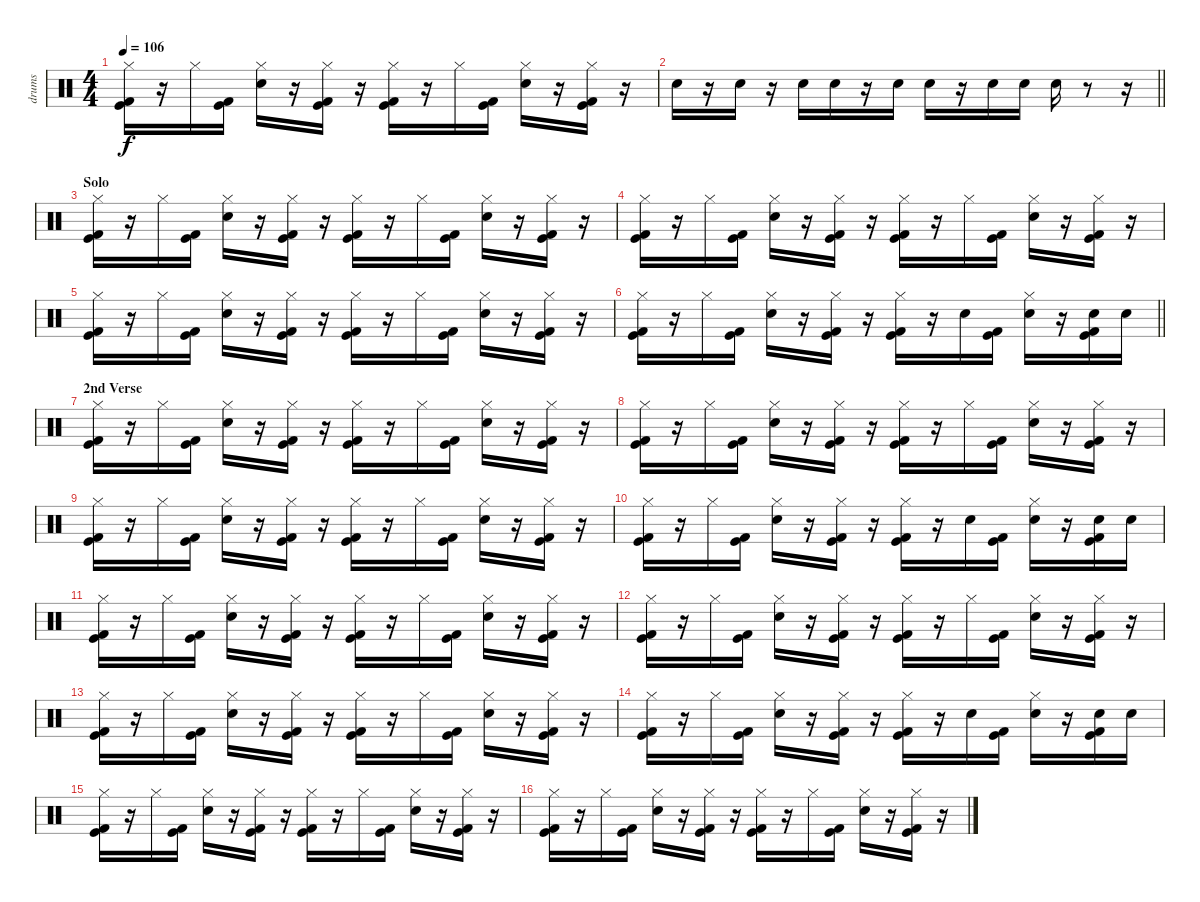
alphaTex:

\track ("drums" "drums") {instrument percussion}
\staff {score}
\articulation defaults
\ts (4 4)
\tempo 106
\clef neutral
\ks c
("Hi-Hat (closed)" "Kick (hit) 2" "Kick (hit)").16{dy f} r.16 "Hi-Hat (closed)".16 ("Kick (hit) 2" "Kick (hit)").16 ("Hi-Hat (closed)" "Electric Snare (hit)").16 r.16 ("Hi-Hat (closed)" "Kick (hit) 2" "Kick (hit)").16 r.16 ("Hi-Hat (closed)" "Kick (hit) 2" "Kick (hit)").16 r.16 "Hi-Hat (closed)".16 ("Kick (hit) 2" "Kick (hit)").16 ("Hi-Hat (closed)" "Electric Snare (hit)").16 r.16 ("Hi-Hat (closed)" "Kick (hit) 2" "Kick (hit)").16 r.16 |
\barLineRight lightlight "Electric Snare (hit)".16
r.16 "Electric Snare (hit)".16 r.16 "Electric Snare (hit)".16 "Electric Snare (hit)".16 r.16 "Electric Snare (hit)".16 "Electric Snare (hit)".16 r.16 "Electric Snare (hit)".16 "Electric Snare (hit)".16 "Electric Snare (hit)".16 r.8 r.16 |
\section ("" "Solo")
("Hi-Hat (closed)" "Kick (hit) 2" "Kick (hit)").16 r.16 "Hi-Hat (closed)".16 ("Kick (hit) 2" "Kick (hit)").16 ("Hi-Hat (closed)" "Electric Snare (hit)").16 r.16 ("Hi-Hat (closed)" "Kick (hit) 2" "Kick (hit)").16 r.16 ("Hi-Hat (closed)" "Kick (hit) 2" "Kick (hit)").16 r.16 "Hi-Hat (closed)".16 ("Kick (hit) 2" "Kick (hit)").16 ("Hi-Hat (closed)" "Electric Snare (hit)").16 r.16 ("Hi-Hat (closed)" "Kick (hit) 2" "Kick (hit)").16 r.16 |
("Hi-Hat (closed)" "Kick (hit) 2" "Kick (hit)").16 r.16 "Hi-Hat (closed)".16 ("Kick (hit) 2" "Kick (hit)").16 ("Hi-Hat (closed)" "Electric Snare (hit)").16 r.16 ("Hi-Hat (closed)" "Kick (hit) 2" "Kick (hit)").16 r.16 ("Hi-Hat (closed)" "Kick (hit) 2" "Kick (hit)").16 r.16 "Hi-Hat (closed)".16 ("Kick (hit) 2" "Kick (hit)").16 ("Hi-Hat (closed)" "Electric Snare (hit)").16 r.16 ("Hi-Hat (closed)" "Kick (hit) 2" "Kick (hit)").16 r.16 |
("Hi-Hat (closed)" "Kick (hit) 2" "Kick (hit)").16 r.16 "Hi-Hat (closed)".16 ("Kick (hit) 2" "Kick (hit)").16 ("Hi-Hat (closed)" "Electric Snare (hit)").16 r.16 ("Hi-Hat (closed)" "Kick (hit) 2" "Kick (hit)").16 r.16 ("Hi-Hat (closed)" "Kick (hit) 2" "Kick (hit)").16 r.16 "Hi-Hat (closed)".16 ("Kick (hit) 2" "Kick (hit)").16 ("Hi-Hat (closed)" "Electric Snare (hit)").16 r.16 ("Hi-Hat (closed)" "Kick (hit) 2" "Kick (hit)").16 r.16 |
\barLineRight lightlight
("Hi-Hat (closed)" "Kick (hit) 2" "Kick (hit)").16 r.16 "Hi-Hat (closed)".16 ("Kick (hit) 2" "Kick (hit)").16 ("Hi-Hat (closed)" "Electric Snare (hit)").16 r.16 ("Hi-Hat (closed)" "Kick (hit) 2" "Kick (hit)").16 r.16 ("Hi-Hat (closed)" "Kick (hit) 2" "Kick (hit)").16 r.16 "Electric Snare (hit)".16 ("Kick (hit) 2" "Kick (hit)").16 ("Hi-Hat (closed)" "Electric Snare (hit)").16 r.16 ("Electric Snare (hit)" "Kick (hit) 2" "Kick (hit)").16 "Electric Snare (hit)".16 |
\section ("" "2nd Verse")
("Hi-Hat (closed)" "Kick (hit) 2" "Kick (hit)").16 r.16 "Hi-Hat (closed)".16 ("Kick (hit) 2" "Kick (hit)").16 ("Hi-Hat (closed)" "Electric Snare (hit)").16 r.16 ("Hi-Hat (closed)" "Kick (hit) 2" "Kick (hit)").16 r.16 ("Hi-Hat (closed)" "Kick (hit) 2" "Kick (hit)").16 r.16 "Hi-Hat (closed)".16 ("Kick (hit) 2" "Kick (hit)").16 ("Hi-Hat (closed)" "Electric Snare (hit)").16 r.16 ("Hi-Hat (closed)" "Kick (hit) 2" "Kick (hit)").16 r.16 |
("Hi-Hat (closed)" "Kick (hit) 2" "Kick (hit)").16 r.16 "Hi-Hat (closed)".16 ("Kick (hit) 2" "Kick (hit)").16 ("Hi-Hat (closed)" "Electric Snare (hit)").16 r.16 ("Hi-Hat (closed)" "Kick (hit) 2" "Kick (hit)").16 r.16 ("Hi-Hat (closed)" "Kick (hit) 2" "Kick (hit)").16 r.16 "Hi-Hat (closed)".16 ("Kick (hit) 2" "Kick (hit)").16 ("Hi-Hat (closed)" "Electric Snare (hit)").16 r.16 ("Hi-Hat (closed)" "Kick (hit) 2" "Kick (hit)").16 r.16 |
("Hi-Hat (closed)" "Kick (hit) 2" "Kick (hit)").16 r.16 "Hi-Hat (closed)".16 ("Kick (hit) 2" "Kick (hit)").16 ("Hi-Hat (closed)" "Electric Snare (hit)").16 r.16 ("Hi-Hat (closed)" "Kick (hit) 2" "Kick (hit)").16 r.16 ("Hi-Hat (closed)" "Kick (hit) 2" "Kick (hit)").16 r.16 "Hi-Hat (closed)".16 ("Kick (hit) 2" "Kick (hit)").16 ("Hi-Hat (closed)" "Electric Snare (hit)").16 r.16 ("Hi-Hat (closed)" "Kick (hit) 2" "Kick (hit)").16 r.16 |
("Hi-Hat (closed)" "Kick (hit) 2" "Kick (hit)").16 r.16 "Hi-Hat (closed)".16 ("Kick (hit) 2" "Kick (hit)").16 ("Hi-Hat (closed)" "Electric Snare (hit)").16 r.16 ("Hi-Hat (closed)" "Kick (hit) 2" "Kick (hit)").16 r.16 ("Hi-Hat (closed)" "Kick (hit) 2" "Kick (hit)").16 r.16 "Electric Snare (hit)".16 ("Kick (hit) 2" "Kick (hit)").16 ("Hi-Hat (closed)" "Electric Snare (hit)").16 r.16 ("Electric Snare (hit)" "Kick (hit) 2" "Kick (hit)").16 "Electric Snare (hit)".16 |
("Hi-Hat (closed)" "Kick (hit) 2" "Kick (hit)").16 r.16 "Hi-Hat (closed)".16 ("Kick (hit) 2" "Kick (hit)").16 ("Hi-Hat (closed)" "Electric Snare (hit)").16 r.16 ("Hi-Hat (closed)" "Kick (hit) 2" "Kick (hit)").16 r.16 ("Hi-Hat (closed)" "Kick (hit) 2" "Kick (hit)").16 r.16 "Hi-Hat (closed)".16 ("Kick (hit) 2" "Kick (hit)").16 ("Hi-Hat (closed)" "Electric Snare (hit)").16 r.16 ("Hi-Hat (closed)" "Kick (hit) 2" "Kick (hit)").16 r.16 |
("Hi-Hat (closed)" "Kick (hit) 2" "Kick (hit)").16 r.16 "Hi-Hat (closed)".16 ("Kick (hit) 2" "Kick (hit)").16 ("Hi-Hat (closed)" "Electric Snare (hit)").16 r.16 ("Hi-Hat (closed)" "Kick (hit) 2" "Kick (hit)").16 r.16 ("Hi-Hat (closed)" "Kick (hit) 2" "Kick (hit)").16 r.16 "Hi-Hat (closed)".16 ("Kick (hit) 2" "Kick (hit)").16 ("Hi-Hat (closed)" "Electric Snare (hit)").16 r.16 ("Hi-Hat (closed)" "Kick (hit) 2" "Kick (hit)").16 r.16 |
("Hi-Hat (closed)" "Kick (hit) 2" "Kick (hit)").16 r.16 "Hi-Hat (closed)".16 ("Kick (hit) 2" "Kick (hit)").16 ("Hi-Hat (closed)" "Electric Snare (hit)").16 r.16 ("Hi-Hat (closed)" "Kick (hit) 2" "Kick (hit)").16 r.16 ("Hi-Hat (closed)" "Kick (hit) 2" "Kick (hit)").16 r.16 "Hi-Hat (closed)".16 ("Kick (hit) 2" "Kick (hit)").16 ("Hi-Hat (closed)" "Electric Snare (hit)").16 r.16 ("Hi-Hat (closed)" "Kick (hit) 2" "Kick (hit)").16 r.16 |
("Hi-Hat (closed)" "Kick (hit) 2" "Kick (hit)").16 r.16 "Hi-Hat (closed)".16 ("Kick (hit) 2" "Kick (hit)").16 ("Hi-Hat (closed)" "Electric Snare (hit)").16 r.16 ("Hi-Hat (closed)" "Kick (hit) 2" "Kick (hit)").16 r.16 ("Hi-Hat (closed)" "Kick (hit) 2" "Kick (hit)").16 r.16 "Electric Snare (hit)".16 ("Kick (hit) 2" "Kick (hit)").16 ("Hi-Hat (closed)" "Electric Snare (hit)").16 r.16 ("Electric Snare (hit)" "Kick (hit) 2" "Kick (hit)").16 "Electric Snare (hit)".16 |
("Hi-Hat (closed)" "Kick (hit) 2" "Kick (hit)").16 r.16 "Hi-Hat (closed)".16 ("Kick (hit) 2" "Kick (hit)").16 ("Hi-Hat (closed)" "Electric Snare (hit)").16 r.16 ("Hi-Hat (closed)" "Kick (hit) 2" "Kick (hit)").16 r.16 ("Hi-Hat (closed)" "Kick (hit) 2" "Kick (hit)").16 r.16 "Hi-Hat (closed)".16 ("Kick (hit) 2" "Kick (hit)").16 ("Hi-Hat (closed)" "Electric Snare (hit)").16 r.16 ("Hi-Hat (closed)" "Kick (hit) 2" "Kick (hit)").16 r.16 |
("Hi-Hat (closed)" "Kick (hit) 2" "Kick (hit)").16 r.16 "Hi-Hat (closed)".16 ("Kick (hit) 2" "Kick (hit)").16 ("Hi-Hat (closed)" "Electric Snare (hit)").16 r.16 ("Hi-Hat (closed)" "Kick (hit) 2" "Kick (hit)").16 r.16 ("Hi-Hat (closed)" "Kick (hit) 2" "Kick (hit)").16 r.16 "Hi-Hat (closed)".16 ("Kick (hit) 2" "Kick (hit)").16 ("Hi-Hat (closed)" "Electric Snare (hit)").16 r.16 ("Hi-Hat (closed)" "Kick (hit) 2" "Kick (hit)").16 r.16
